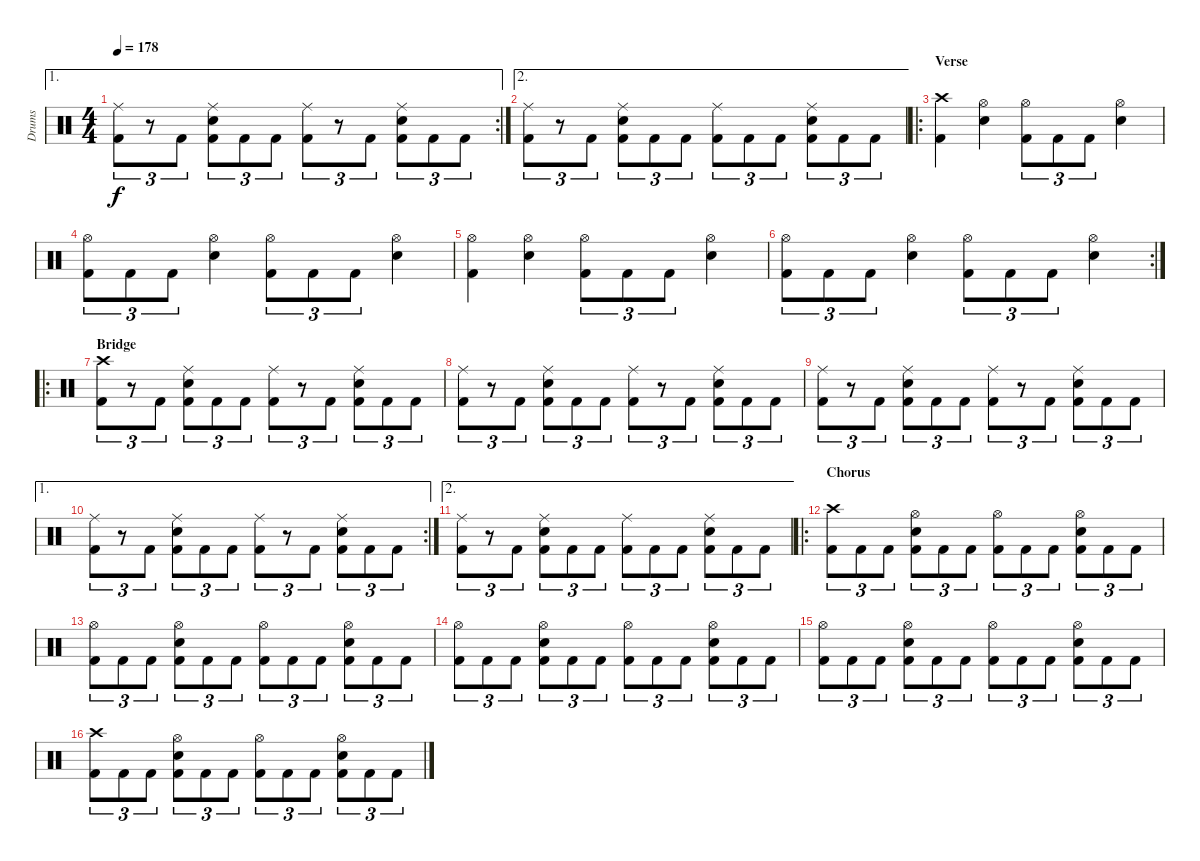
\track ("Drums" "Drums") {instrument percussion}
\staff {score}
\articulation defaults
\ae 1
\rc 2
\ts (4 4)
\tempo 178
\clef neutral
\ks c
("Ride (middle)" "Kick (hit) 2").8{tu (3 2) dy f} r.8{tu (3 2)} "Kick (hit) 2".8{tu (3 2)} ("Ride (middle)" "Electric Snare (hit)" "Kick (hit) 2").8{tu (3 2)} "Kick (hit) 2".8{tu (3 2)} "Kick (hit) 2".8{tu (3 2)} ("Ride (middle)" "Kick (hit) 2").8{tu (3 2)} r.8{tu (3 2)} "Kick (hit) 2".8{tu (3 2)} ("Ride (middle)" "Electric Snare (hit)" "Kick (hit) 2").8{tu (3 2)} "Kick (hit) 2".8{tu (3 2)} "Kick (hit) 2".8{tu (3 2)} |
\ae 2
("Ride (middle)" "Kick (hit) 2").8{tu (3 2)} r.8{tu (3 2)} "Kick (hit) 2".8{tu (3 2)} ("Ride (middle)" "Electric Snare (hit)" "Kick (hit) 2").8{tu (3 2)} "Kick (hit) 2".8{tu (3 2)} "Kick (hit) 2".8{tu (3 2)} ("Ride (middle)" "Kick (hit) 2").8{tu (3 2)} "Kick (hit) 2".8{tu (3 2)} "Kick (hit) 2".8{tu (3 2)} ("Ride (middle)" "Electric Snare (hit)" "Kick (hit) 2").8{tu (3 2)} "Kick (hit) 2".8{tu (3 2)} "Kick (hit) 2".8{tu (3 2)} |
\ro
\section ("" "Verse")
("Crash high (hit)" "Kick (hit) 2").4 ("Hi-Hat (open)" "Electric Snare (hit)").4 ("Hi-Hat (open)" "Kick (hit) 2").8{tu (3 2)} "Kick (hit) 2".8{tu (3 2)} "Kick (hit) 2".8{tu (3 2)} ("Hi-Hat (open)" "Electric Snare (hit)").4 |
("Hi-Hat (open)" "Kick (hit) 2").8{tu (3 2)} "Kick (hit) 2".8{tu (3 2)} "Kick (hit) 2".8{tu (3 2)} ("Hi-Hat (open)" "Electric Snare (hit)").4 ("Hi-Hat (open)" "Kick (hit) 2").8{tu (3 2)} "Kick (hit) 2".8{tu (3 2)} "Kick (hit) 2".8{tu (3 2)} ("Hi-Hat (open)" "Electric Snare (hit)").4 |
("Hi-Hat (open)" "Kick (hit) 2").4 ("Hi-Hat (open)" "Electric Snare (hit)").4 ("Hi-Hat (open)" "Kick (hit) 2").8{tu (3 2)} "Kick (hit) 2".8{tu (3 2)} "Kick (hit) 2".8{tu (3 2)} ("Hi-Hat (open)" "Electric Snare (hit)").4 |
\rc 2
("Hi-Hat (open)" "Kick (hit) 2").8{tu (3 2)} "Kick (hit) 2".8{tu (3 2)} "Kick (hit) 2".8{tu (3 2)} ("Hi-Hat (open)" "Electric Snare (hit)").4 ("Hi-Hat (open)" "Kick (hit) 2").8{tu (3 2)} "Kick (hit) 2".8{tu (3 2)} "Kick (hit) 2".8{tu (3 2)} ("Hi-Hat (open)" "Electric Snare (hit)").4 |
\ro
\section ("" "Bridge")
("Crash high (hit)" "Kick (hit) 2").8{tu (3 2)} r.8{tu (3 2)} "Kick (hit) 2".8{tu (3 2)} ("Ride (middle)" "Electric Snare (hit)" "Kick (hit) 2").8{tu (3 2)} "Kick (hit) 2".8{tu (3 2)} "Kick (hit) 2".8{tu (3 2)} ("Ride (middle)" "Kick (hit) 2").8{tu (3 2)} r.8{tu (3 2)} "Kick (hit) 2".8{tu (3 2)} ("Ride (middle)" "Electric Snare (hit)" "Kick (hit) 2").8{tu (3 2)} "Kick (hit) 2".8{tu (3 2)} "Kick (hit) 2".8{tu (3 2)} |
("Ride (middle)" "Kick (hit) 2").8{tu (3 2)} r.8{tu (3 2)} "Kick (hit) 2".8{tu (3 2)} ("Ride (middle)" "Electric Snare (hit)" "Kick (hit) 2").8{tu (3 2)} "Kick (hit) 2".8{tu (3 2)} "Kick (hit) 2".8{tu (3 2)} ("Ride (middle)" "Kick (hit) 2").8{tu (3 2)} r.8{tu (3 2)} "Kick (hit) 2".8{tu (3 2)} ("Ride (middle)" "Electric Snare (hit)" "Kick (hit) 2").8{tu (3 2)} "Kick (hit) 2".8{tu (3 2)} "Kick (hit) 2".8{tu (3 2)} |
("Ride (middle)" "Kick (hit) 2").8{tu (3 2)} r.8{tu (3 2)} "Kick (hit) 2".8{tu (3 2)} ("Ride (middle)" "Electric Snare (hit)" "Kick (hit) 2").8{tu (3 2)} "Kick (hit) 2".8{tu (3 2)} "Kick (hit) 2".8{tu (3 2)} ("Ride (middle)" "Kick (hit) 2").8{tu (3 2)} r.8{tu (3 2)} "Kick (hit) 2".8{tu (3 2)} ("Ride (middle)" "Electric Snare (hit)" "Kick (hit) 2").8{tu (3 2)} "Kick (hit) 2".8{tu (3 2)} "Kick (hit) 2".8{tu (3 2)} |
\ae 1
\rc 2
("Ride (middle)" "Kick (hit) 2").8{tu (3 2)} r.8{tu (3 2)} "Kick (hit) 2".8{tu (3 2)} ("Ride (middle)" "Electric Snare (hit)" "Kick (hit) 2").8{tu (3 2)} "Kick (hit) 2".8{tu (3 2)} "Kick (hit) 2".8{tu (3 2)} ("Ride (middle)" "Kick (hit) 2").8{tu (3 2)} r.8{tu (3 2)} "Kick (hit) 2".8{tu (3 2)} ("Ride (middle)" "Electric Snare (hit)" "Kick (hit) 2").8{tu (3 2)} "Kick (hit) 2".8{tu (3 2)} "Kick (hit) 2".8{tu (3 2)} |
\ae 2
("Ride (middle)" "Kick (hit) 2").8{tu (3 2)} r.8{tu (3 2)} "Kick (hit) 2".8{tu (3 2)} ("Ride (middle)" "Electric Snare (hit)" "Kick (hit) 2").8{tu (3 2)} "Kick (hit) 2".8{tu (3 2)} "Kick (hit) 2".8{tu (3 2)} ("Ride (middle)" "Kick (hit) 2").8{tu (3 2)} "Kick (hit) 2".8{tu (3 2)} "Kick (hit) 2".8{tu (3 2)} ("Ride (middle)" "Electric Snare (hit)" "Kick (hit) 2").8{tu (3 2)} "Kick (hit) 2".8{tu (3 2)} "Kick (hit) 2".8{tu (3 2)} |
\ro
\section ("" "Chorus")
("Crash high (hit)" "Kick (hit) 2").8{tu (3 2)} "Kick (hit) 2".8{tu (3 2)} "Kick (hit) 2".8{tu (3 2)} ("Hi-Hat (open)" "Electric Snare (hit)" "Kick (hit) 2").8{tu (3 2)} "Kick (hit) 2".8{tu (3 2)} "Kick (hit) 2".8{tu (3 2)} ("Hi-Hat (open)" "Kick (hit) 2").8{tu (3 2)} "Kick (hit) 2".8{tu (3 2)} "Kick (hit) 2".8{tu (3 2)} ("Hi-Hat (open)" "Electric Snare (hit)" "Kick (hit) 2").8{tu (3 2)} "Kick (hit) 2".8{tu (3 2)} "Kick (hit) 2".8{tu (3 2)} |
("Hi-Hat (open)" "Kick (hit) 2").8{tu (3 2)} "Kick (hit) 2".8{tu (3 2)} "Kick (hit) 2".8{tu (3 2)} ("Hi-Hat (open)" "Electric Snare (hit)" "Kick (hit) 2").8{tu (3 2)} "Kick (hit) 2".8{tu (3 2)} "Kick (hit) 2".8{tu (3 2)} ("Hi-Hat (open)" "Kick (hit) 2").8{tu (3 2)} "Kick (hit) 2".8{tu (3 2)} "Kick (hit) 2".8{tu (3 2)} ("Hi-Hat (open)" "Electric Snare (hit)" "Kick (hit) 2").8{tu (3 2)} "Kick (hit) 2".8{tu (3 2)} "Kick (hit) 2".8{tu (3 2)} |
("Hi-Hat (open)" "Kick (hit) 2").8{tu (3 2)} "Kick (hit) 2".8{tu (3 2)} "Kick (hit) 2".8{tu (3 2)} ("Hi-Hat (open)" "Electric Snare (hit)" "Kick (hit) 2").8{tu (3 2)} "Kick (hit) 2".8{tu (3 2)} "Kick (hit) 2".8{tu (3 2)} ("Hi-Hat (open)" "Kick (hit) 2").8{tu (3 2)} "Kick (hit) 2".8{tu (3 2)} "Kick (hit) 2".8{tu (3 2)} ("Hi-Hat (open)" "Electric Snare (hit)" "Kick (hit) 2").8{tu (3 2)} "Kick (hit) 2".8{tu (3 2)} "Kick (hit) 2".8{tu (3 2)} |
("Hi-Hat (open)" "Kick (hit) 2").8{tu (3 2)} "Kick (hit) 2".8{tu (3 2)} "Kick (hit) 2".8{tu (3 2)} ("Hi-Hat (open)" "Electric Snare (hit)" "Kick (hit) 2").8{tu (3 2)} "Kick (hit) 2".8{tu (3 2)} "Kick (hit) 2".8{tu (3 2)} ("Hi-Hat (open)" "Kick (hit) 2").8{tu (3 2)} "Kick (hit) 2".8{tu (3 2)} "Kick (hit) 2".8{tu (3 2)} ("Hi-Hat (open)" "Electric Snare (hit)" "Kick (hit) 2").8{tu (3 2)} "Kick (hit) 2".8{tu (3 2)} "Kick (hit) 2".8{tu (3 2)} |
("Crash high (hit)" "Kick (hit) 2").8{tu (3 2)} "Kick (hit) 2".8{tu (3 2)} "Kick (hit) 2".8{tu (3 2)} ("Hi-Hat (open)" "Electric Snare (hit)" "Kick (hit) 2").8{tu (3 2)} "Kick (hit) 2".8{tu (3 2)} "Kick (hit) 2".8{tu (3 2)} ("Hi-Hat (open)" "Kick (hit) 2").8{tu (3 2)} "Kick (hit) 2".8{tu (3 2)} "Kick (hit) 2".8{tu (3 2)} ("Hi-Hat (open)" "Electric Snare (hit)" "Kick (hit) 2").8{tu (3 2)} "Kick (hit) 2".8{tu (3 2)} "Kick (hit) 2".8{tu (3 2)}
